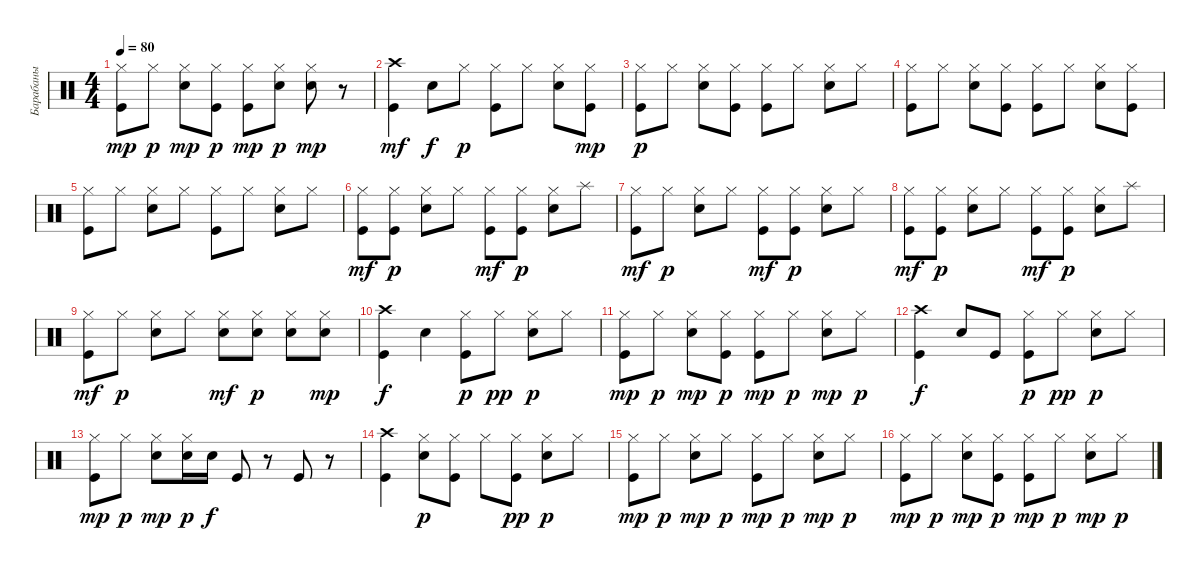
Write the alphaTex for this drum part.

\track ("Барабаны" "Барабаны") {instrument percussion}
\staff {score}
\articulation defaults
\ts (4 4)
\tempo 80
\clef neutral
\ks c
("Kick (hit)" "Hi-Hat (closed)").8{dy mp} "Hi-Hat (closed)".8{dy p} ("Snare (hit) 2" "Hi-Hat (closed)").8{dy mp} ("Kick (hit)" "Hi-Hat (closed)").8{dy p} ("Kick (hit)" "Hi-Hat (closed)").8{dy mp} ("Snare (hit) 2" "Hi-Hat (closed)").8{dy p} ("Snare (hit) 2" "Hi-Hat (closed)").8{dy mp} r.8 |
("Crash high (hit)" "Kick (hit)").4{dy mf} "Snare (hit) 2".8{dy f} "Hi-Hat (closed)".8{dy p} ("Hi-Hat (closed)" "Kick (hit)").8 "Hi-Hat (closed)".8 ("Hi-Hat (closed)" "Snare (hit) 2").8 ("Hi-Hat (closed)" "Kick (hit)").8{dy mp} |
("Hi-Hat (closed)" "Kick (hit)").8{dy p} "Hi-Hat (closed)".8 ("Hi-Hat (closed)" "Snare (hit) 2").8 ("Hi-Hat (closed)" "Kick (hit)").8 ("Hi-Hat (closed)" "Kick (hit)").8 "Hi-Hat (closed)".8 ("Hi-Hat (closed)" "Snare (hit) 2").8 "Hi-Hat (closed)".8 |
("Hi-Hat (closed)" "Kick (hit)").8 "Hi-Hat (closed)".8 ("Hi-Hat (closed)" "Snare (hit) 2").8 ("Hi-Hat (closed)" "Kick (hit)").8 ("Hi-Hat (closed)" "Kick (hit)").8 "Hi-Hat (closed)".8 ("Hi-Hat (closed)" "Snare (hit) 2").8 ("Kick (hit)" "Hi-Hat (closed)").8 |
("Hi-Hat (closed)" "Kick (hit)").8 "Hi-Hat (closed)".8 ("Hi-Hat (closed)" "Snare (hit) 2").8 "Hi-Hat (closed)".8 ("Hi-Hat (closed)" "Kick (hit)").8 "Hi-Hat (closed)".8 ("Hi-Hat (closed)" "Snare (hit) 2").8 "Hi-Hat (closed)".8 |
("Hi-Hat (closed)" "Kick (hit)").8{dy mf} ("Kick (hit)" "Hi-Hat (closed)").8{dy p} ("Hi-Hat (closed)" "Snare (hit) 2").8 "Hi-Hat (closed)".8 ("Hi-Hat (closed)" "Kick (hit)").8{dy mf} ("Kick (hit)" "Hi-Hat (closed)").8{dy p} ("Hi-Hat (closed)" "Snare (hit) 2").8 "Splash (hit)".8 |
("Hi-Hat (closed)" "Kick (hit)").8{dy mf} "Hi-Hat (closed)".8{dy p} ("Hi-Hat (closed)" "Snare (hit) 2").8 "Hi-Hat (closed)".8 ("Hi-Hat (closed)" "Kick (hit)").8{dy mf} ("Kick (hit)" "Hi-Hat (closed)").8{dy p} ("Hi-Hat (closed)" "Snare (hit) 2").8 "Hi-Hat (closed)".8 |
("Hi-Hat (closed)" "Kick (hit)").8{dy mf} ("Kick (hit)" "Hi-Hat (closed)").8{dy p} ("Hi-Hat (closed)" "Snare (hit) 2").8 "Hi-Hat (closed)".8 ("Hi-Hat (closed)" "Kick (hit)").8{dy mf} ("Kick (hit)" "Hi-Hat (closed)").8{dy p} ("Hi-Hat (closed)" "Snare (hit) 2").8 "Splash (hit)".8 |
("Hi-Hat (closed)" "Kick (hit)").8{dy mf} "Hi-Hat (closed)".8{dy p} ("Hi-Hat (closed)" "Snare (hit) 2").8 "Hi-Hat (closed)".8 ("Hi-Hat (closed)" "Snare (hit) 2").8{dy mf} ("Snare (hit) 2" "Hi-Hat (closed)").8{dy p} ("Hi-Hat (closed)" "Snare (hit) 2").8 ("Hi-Hat (closed)" "Snare (hit) 2").8{dy mp} |
("Crash high (hit)" "Kick (hit)").4{dy f} "Snare (hit) 2".4 ("Kick (hit)" "Hi-Hat (closed)").8{dy p} "Hi-Hat (closed)".8{dy pp} ("Hi-Hat (closed)" "Snare (hit) 2").8{dy p} "Hi-Hat (closed)".8 |
("Kick (hit)" "Hi-Hat (closed)").8{dy mp} "Hi-Hat (closed)".8{dy p} ("Hi-Hat (closed)" "Snare (hit) 2").8{dy mp} ("Kick (hit)" "Hi-Hat (closed)").8{dy p} ("Hi-Hat (closed)" "Kick (hit)").8{dy mp} "Hi-Hat (closed)".8{dy p} ("Snare (hit) 2" "Hi-Hat (closed)").8{dy mp} "Hi-Hat (closed)".8{dy p} |
("Kick (hit)" "Crash high (hit)").4{dy f} "Snare (hit) 2".8 "Kick (hit)".8 ("Kick (hit)" "Hi-Hat (closed)").8{dy p} "Hi-Hat (closed)".8{dy pp} ("Hi-Hat (closed)" "Snare (hit) 2").8{dy p} "Hi-Hat (closed)".8 |
("Kick (hit)" "Hi-Hat (closed)").8{dy mp} "Hi-Hat (closed)".8{dy p} ("Snare (hit) 2" "Hi-Hat (closed)").8{dy mp} ("Snare (hit) 2" "Hi-Hat (closed)").16{dy p} "Snare (hit) 2".16{dy f} "Kick (hit)".8 r.8 "Kick (hit)".8 r.8 |
("Kick (hit)" "Crash high (hit)").4 ("Snare (hit) 2" "Hi-Hat (closed)").8{dy p} ("Kick (hit)" "Hi-Hat (closed)").8 "Hi-Hat (closed)".8 ("Kick (hit)" "Hi-Hat (closed)").8{dy pp} ("Snare (hit) 2" "Hi-Hat (closed)").8{dy p} "Hi-Hat (closed)".8 |
("Kick (hit)" "Hi-Hat (closed)").8{dy mp} "Hi-Hat (closed)".8{dy p} ("Snare (hit) 2" "Hi-Hat (closed)").8{dy mp} "Hi-Hat (closed)".8{dy p} ("Kick (hit)" "Hi-Hat (closed)").8{dy mp} "Hi-Hat (closed)".8{dy p} ("Snare (hit) 2" "Hi-Hat (closed)").8{dy mp} "Hi-Hat (closed)".8{dy p} |
("Kick (hit)" "Hi-Hat (closed)").8{dy mp} "Hi-Hat (closed)".8{dy p} ("Snare (hit) 2" "Hi-Hat (closed)").8{dy mp} ("Kick (hit)" "Hi-Hat (closed)").8{dy p} ("Kick (hit)" "Hi-Hat (closed)").8{dy mp} "Hi-Hat (closed)".8{dy p} ("Snare (hit) 2" "Hi-Hat (closed)").8{dy mp} "Hi-Hat (closed)".8{dy p}
